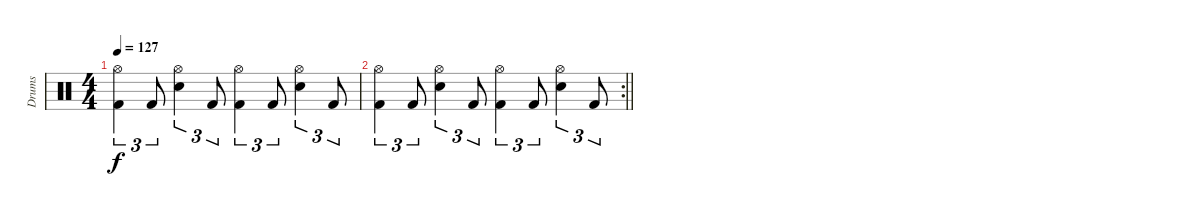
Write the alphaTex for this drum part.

\track ("Drums" "Drums") {instrument percussion}
\staff {score}
\articulation defaults
\ts (4 4)
\tempo 127
\clef neutral
\ks c
("Kick (hit) 2" "Hi-Hat (open)").4{tu (3 2) dy f} "Kick (hit) 2".8{tu (3 2)} ("Snare (hit) 2" "Hi-Hat (open)").4{tu (3 2)} "Kick (hit) 2".8{tu (3 2)} ("Kick (hit) 2" "Hi-Hat (open)").4{tu (3 2)} "Kick (hit) 2".8{tu (3 2)} ("Snare (hit) 2" "Hi-Hat (open)").4{tu (3 2)} "Kick (hit) 2".8{tu (3 2)} |
\rc 2
\barLineRight lightlight
("Kick (hit) 2" "Hi-Hat (open)").4{tu (3 2)} "Kick (hit) 2".8{tu (3 2)} ("Snare (hit) 2" "Hi-Hat (open)").4{tu (3 2)} "Kick (hit) 2".8{tu (3 2)} ("Kick (hit) 2" "Hi-Hat (open)").4{tu (3 2)} "Kick (hit) 2".8{tu (3 2)} ("Snare (hit) 2" "Hi-Hat (open)").4{tu (3 2)} "Kick (hit) 2".8{tu (3 2)}
